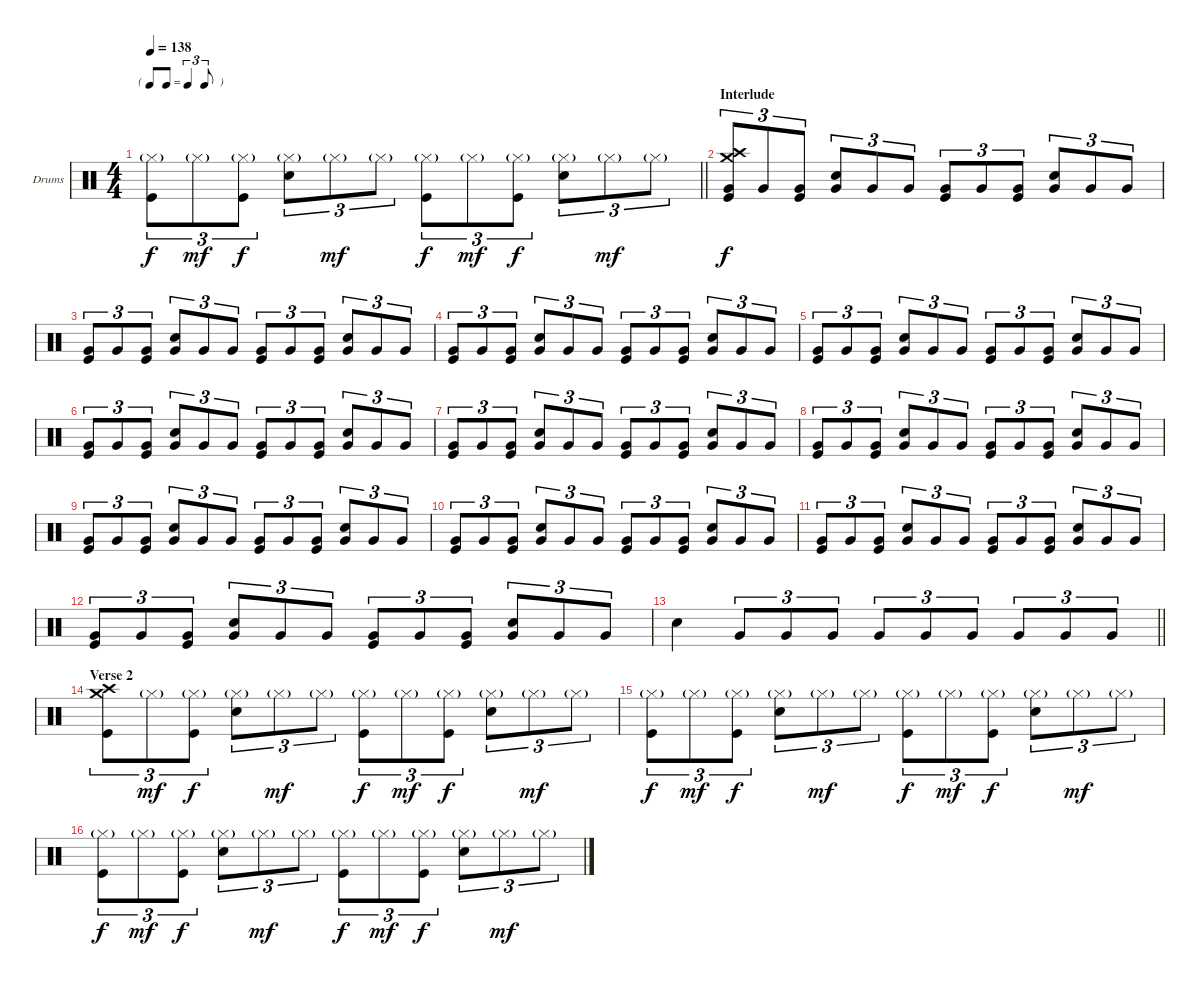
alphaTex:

\bracketExtendMode groupsimilarinstruments
\firstSystemTrackNameOrientation horizontal
\otherSystemsTrackNameOrientation horizontal
\track ("Drumkit" "Drums") {instrument percussion}
\staff {score}
\articulation defaults
\ts (4 4)
\tf triplet8th
\tempo 138
\clef neutral
\barLineRight lightlight
\ks c
("Hi-Hat (closed)"{g} "Kick (hit)").8{tu (3 2) dy f} "Hi-Hat (closed)"{g}.8{tu (3 2) dy mf} ("Hi-Hat (closed)"{g} "Kick (hit)").8{tu (3 2) dy f} ("Hi-Hat (closed)"{g} "Snare (hit) 2").8{tu (3 2)} "Hi-Hat (closed)"{g}.8{tu (3 2) dy mf} "Hi-Hat (closed)"{g}.8{tu (3 2)} ("Hi-Hat (closed)"{g} "Kick (hit)").8{tu (3 2) dy f} "Hi-Hat (closed)"{g}.8{tu (3 2) dy mf} ("Hi-Hat (closed)"{g} "Kick (hit)").8{tu (3 2) dy f} ("Hi-Hat (closed)"{g} "Snare (hit) 2").8{tu (3 2)} "Hi-Hat (closed)"{g}.8{tu (3 2) dy mf} "Hi-Hat (closed)"{g}.8{tu (3 2)} |
\section ("" "Interlude")
("Crash medium (hit)" "Crash high (hit)" "Kick (hit)" "Very Low Tom (hit)").8{tu (3 2) dy f} "Very Low Tom (hit)".8{tu (3 2)} ("Kick (hit)" "Very Low Tom (hit)").8{tu (3 2)} ("Snare (hit) 2" "Very Low Tom (hit)").8{tu (3 2)} "Very Low Tom (hit)".8{tu (3 2)} "Very Low Tom (hit)".8{tu (3 2)} ("Kick (hit)" "Very Low Tom (hit)").8{tu (3 2)} "Very Low Tom (hit)".8{tu (3 2)} ("Kick (hit)" "Very Low Tom (hit)").8{tu (3 2)} ("Snare (hit) 2" "Very Low Tom (hit)").8{tu (3 2)} "Very Low Tom (hit)".8{tu (3 2)} "Very Low Tom (hit)".8{tu (3 2)} |
("Kick (hit)" "Very Low Tom (hit)").8{tu (3 2)} "Very Low Tom (hit)".8{tu (3 2)} ("Kick (hit)" "Very Low Tom (hit)").8{tu (3 2)} ("Snare (hit) 2" "Very Low Tom (hit)").8{tu (3 2)} "Very Low Tom (hit)".8{tu (3 2)} "Very Low Tom (hit)".8{tu (3 2)} ("Kick (hit)" "Very Low Tom (hit)").8{tu (3 2)} "Very Low Tom (hit)".8{tu (3 2)} ("Kick (hit)" "Very Low Tom (hit)").8{tu (3 2)} ("Snare (hit) 2" "Very Low Tom (hit)").8{tu (3 2)} "Very Low Tom (hit)".8{tu (3 2)} "Very Low Tom (hit)".8{tu (3 2)} |
("Kick (hit)" "Very Low Tom (hit)").8{tu (3 2)} "Very Low Tom (hit)".8{tu (3 2)} ("Kick (hit)" "Very Low Tom (hit)").8{tu (3 2)} ("Snare (hit) 2" "Very Low Tom (hit)").8{tu (3 2)} "Very Low Tom (hit)".8{tu (3 2)} "Very Low Tom (hit)".8{tu (3 2)} ("Kick (hit)" "Very Low Tom (hit)").8{tu (3 2)} "Very Low Tom (hit)".8{tu (3 2)} ("Kick (hit)" "Very Low Tom (hit)").8{tu (3 2)} ("Snare (hit) 2" "Very Low Tom (hit)").8{tu (3 2)} "Very Low Tom (hit)".8{tu (3 2)} "Very Low Tom (hit)".8{tu (3 2)} |
("Kick (hit)" "Very Low Tom (hit)").8{tu (3 2)} "Very Low Tom (hit)".8{tu (3 2)} ("Kick (hit)" "Very Low Tom (hit)").8{tu (3 2)} ("Snare (hit) 2" "Very Low Tom (hit)").8{tu (3 2)} "Very Low Tom (hit)".8{tu (3 2)} "Very Low Tom (hit)".8{tu (3 2)} ("Kick (hit)" "Very Low Tom (hit)").8{tu (3 2)} "Very Low Tom (hit)".8{tu (3 2)} ("Kick (hit)" "Very Low Tom (hit)").8{tu (3 2)} ("Snare (hit) 2" "Very Low Tom (hit)").8{tu (3 2)} "Very Low Tom (hit)".8{tu (3 2)} "Very Low Tom (hit)".8{tu (3 2)} |
("Kick (hit)" "Very Low Tom (hit)").8{tu (3 2)} "Very Low Tom (hit)".8{tu (3 2)} ("Kick (hit)" "Very Low Tom (hit)").8{tu (3 2)} ("Snare (hit) 2" "Very Low Tom (hit)").8{tu (3 2)} "Very Low Tom (hit)".8{tu (3 2)} "Very Low Tom (hit)".8{tu (3 2)} ("Kick (hit)" "Very Low Tom (hit)").8{tu (3 2)} "Very Low Tom (hit)".8{tu (3 2)} ("Kick (hit)" "Very Low Tom (hit)").8{tu (3 2)} ("Snare (hit) 2" "Very Low Tom (hit)").8{tu (3 2)} "Very Low Tom (hit)".8{tu (3 2)} "Very Low Tom (hit)".8{tu (3 2)} |
("Kick (hit)" "Very Low Tom (hit)").8{tu (3 2)} "Very Low Tom (hit)".8{tu (3 2)} ("Kick (hit)" "Very Low Tom (hit)").8{tu (3 2)} ("Snare (hit) 2" "Very Low Tom (hit)").8{tu (3 2)} "Very Low Tom (hit)".8{tu (3 2)} "Very Low Tom (hit)".8{tu (3 2)} ("Kick (hit)" "Very Low Tom (hit)").8{tu (3 2)} "Very Low Tom (hit)".8{tu (3 2)} ("Kick (hit)" "Very Low Tom (hit)").8{tu (3 2)} ("Snare (hit) 2" "Very Low Tom (hit)").8{tu (3 2)} "Very Low Tom (hit)".8{tu (3 2)} "Very Low Tom (hit)".8{tu (3 2)} |
("Kick (hit)" "Very Low Tom (hit)").8{tu (3 2)} "Very Low Tom (hit)".8{tu (3 2)} ("Kick (hit)" "Very Low Tom (hit)").8{tu (3 2)} ("Snare (hit) 2" "Very Low Tom (hit)").8{tu (3 2)} "Very Low Tom (hit)".8{tu (3 2)} "Very Low Tom (hit)".8{tu (3 2)} ("Kick (hit)" "Very Low Tom (hit)").8{tu (3 2)} "Very Low Tom (hit)".8{tu (3 2)} ("Kick (hit)" "Very Low Tom (hit)").8{tu (3 2)} ("Snare (hit) 2" "Very Low Tom (hit)").8{tu (3 2)} "Very Low Tom (hit)".8{tu (3 2)} "Very Low Tom (hit)".8{tu (3 2)} |
("Kick (hit)" "Very Low Tom (hit)").8{tu (3 2)} "Very Low Tom (hit)".8{tu (3 2)} ("Kick (hit)" "Very Low Tom (hit)").8{tu (3 2)} ("Snare (hit) 2" "Very Low Tom (hit)").8{tu (3 2)} "Very Low Tom (hit)".8{tu (3 2)} "Very Low Tom (hit)".8{tu (3 2)} ("Kick (hit)" "Very Low Tom (hit)").8{tu (3 2)} "Very Low Tom (hit)".8{tu (3 2)} ("Kick (hit)" "Very Low Tom (hit)").8{tu (3 2)} ("Snare (hit) 2" "Very Low Tom (hit)").8{tu (3 2)} "Very Low Tom (hit)".8{tu (3 2)} "Very Low Tom (hit)".8{tu (3 2)} |
("Kick (hit)" "Very Low Tom (hit)").8{tu (3 2)} "Very Low Tom (hit)".8{tu (3 2)} ("Kick (hit)" "Very Low Tom (hit)").8{tu (3 2)} ("Snare (hit) 2" "Very Low Tom (hit)").8{tu (3 2)} "Very Low Tom (hit)".8{tu (3 2)} "Very Low Tom (hit)".8{tu (3 2)} ("Kick (hit)" "Very Low Tom (hit)").8{tu (3 2)} "Very Low Tom (hit)".8{tu (3 2)} ("Kick (hit)" "Very Low Tom (hit)").8{tu (3 2)} ("Snare (hit) 2" "Very Low Tom (hit)").8{tu (3 2)} "Very Low Tom (hit)".8{tu (3 2)} "Very Low Tom (hit)".8{tu (3 2)} |
("Kick (hit)" "Very Low Tom (hit)").8{tu (3 2)} "Very Low Tom (hit)".8{tu (3 2)} ("Kick (hit)" "Very Low Tom (hit)").8{tu (3 2)} ("Snare (hit) 2" "Very Low Tom (hit)").8{tu (3 2)} "Very Low Tom (hit)".8{tu (3 2)} "Very Low Tom (hit)".8{tu (3 2)} ("Kick (hit)" "Very Low Tom (hit)").8{tu (3 2)} "Very Low Tom (hit)".8{tu (3 2)} ("Kick (hit)" "Very Low Tom (hit)").8{tu (3 2)} ("Snare (hit) 2" "Very Low Tom (hit)").8{tu (3 2)} "Very Low Tom (hit)".8{tu (3 2)} "Very Low Tom (hit)".8{tu (3 2)} |
("Kick (hit)" "Very Low Tom (hit)").8{tu (3 2)} "Very Low Tom (hit)".8{tu (3 2)} ("Kick (hit)" "Very Low Tom (hit)").8{tu (3 2)} ("Snare (hit) 2" "Very Low Tom (hit)").8{tu (3 2)} "Very Low Tom (hit)".8{tu (3 2)} "Very Low Tom (hit)".8{tu (3 2)} ("Kick (hit)" "Very Low Tom (hit)").8{tu (3 2)} "Very Low Tom (hit)".8{tu (3 2)} ("Kick (hit)" "Very Low Tom (hit)").8{tu (3 2)} ("Snare (hit) 2" "Very Low Tom (hit)").8{tu (3 2)} "Very Low Tom (hit)".8{tu (3 2)} "Very Low Tom (hit)".8{tu (3 2)} |
\barLineRight lightlight "Snare (hit) 2".4 "Very Low Tom (hit)".8{tu (3 2)} "Very Low Tom (hit)".8{tu (3 2)} "Very Low Tom (hit)".8{tu (3 2)} "Very Low Tom (hit)".8{tu (3 2)} "Very Low Tom (hit)".8{tu (3 2)} "Very Low Tom (hit)".8{tu (3 2)} "Very Low Tom (hit)".8{tu (3 2)} "Very Low Tom (hit)".8{tu (3 2)} "Very Low Tom (hit)".8{tu (3 2)}
|
\section ("" "Verse 2")
("Crash high (hit)" "Crash medium (hit)" "Kick (hit)").8{tu (3 2)} "Hi-Hat (closed)"{g}.8{tu (3 2) dy mf} ("Hi-Hat (closed)"{g} "Kick (hit)").8{tu (3 2) dy f} ("Hi-Hat (closed)"{g} "Snare (hit) 2").8{tu (3 2)} "Hi-Hat (closed)"{g}.8{tu (3 2) dy mf} "Hi-Hat (closed)"{g}.8{tu (3 2)} ("Hi-Hat (closed)"{g} "Kick (hit)").8{tu (3 2) dy f} "Hi-Hat (closed)"{g}.8{tu (3 2) dy mf} ("Hi-Hat (closed)"{g} "Kick (hit)").8{tu (3 2) dy f} ("Hi-Hat (closed)"{g} "Snare (hit) 2").8{tu (3 2)} "Hi-Hat (closed)"{g}.8{tu (3 2) dy mf} "Hi-Hat (closed)"{g}.8{tu (3 2)} |
("Hi-Hat (closed)"{g} "Kick (hit)").8{tu (3 2) dy f} "Hi-Hat (closed)"{g}.8{tu (3 2) dy mf} ("Hi-Hat (closed)"{g} "Kick (hit)").8{tu (3 2) dy f} ("Hi-Hat (closed)"{g} "Snare (hit) 2").8{tu (3 2)} "Hi-Hat (closed)"{g}.8{tu (3 2) dy mf} "Hi-Hat (closed)"{g}.8{tu (3 2)} ("Hi-Hat (closed)"{g} "Kick (hit)").8{tu (3 2) dy f} "Hi-Hat (closed)"{g}.8{tu (3 2) dy mf} ("Hi-Hat (closed)"{g} "Kick (hit)").8{tu (3 2) dy f} ("Hi-Hat (closed)"{g} "Snare (hit) 2").8{tu (3 2)} "Hi-Hat (closed)"{g}.8{tu (3 2) dy mf} "Hi-Hat (closed)"{g}.8{tu (3 2)} |
("Hi-Hat (closed)"{g} "Kick (hit)").8{tu (3 2) dy f} "Hi-Hat (closed)"{g}.8{tu (3 2) dy mf} ("Hi-Hat (closed)"{g} "Kick (hit)").8{tu (3 2) dy f} ("Hi-Hat (closed)"{g} "Snare (hit) 2").8{tu (3 2)} "Hi-Hat (closed)"{g}.8{tu (3 2) dy mf} "Hi-Hat (closed)"{g}.8{tu (3 2)} ("Hi-Hat (closed)"{g} "Kick (hit)").8{tu (3 2) dy f} "Hi-Hat (closed)"{g}.8{tu (3 2) dy mf} ("Hi-Hat (closed)"{g} "Kick (hit)").8{tu (3 2) dy f} ("Hi-Hat (closed)"{g} "Snare (hit) 2").8{tu (3 2)} "Hi-Hat (closed)"{g}.8{tu (3 2) dy mf} "Hi-Hat (closed)"{g}.8{tu (3 2)}
